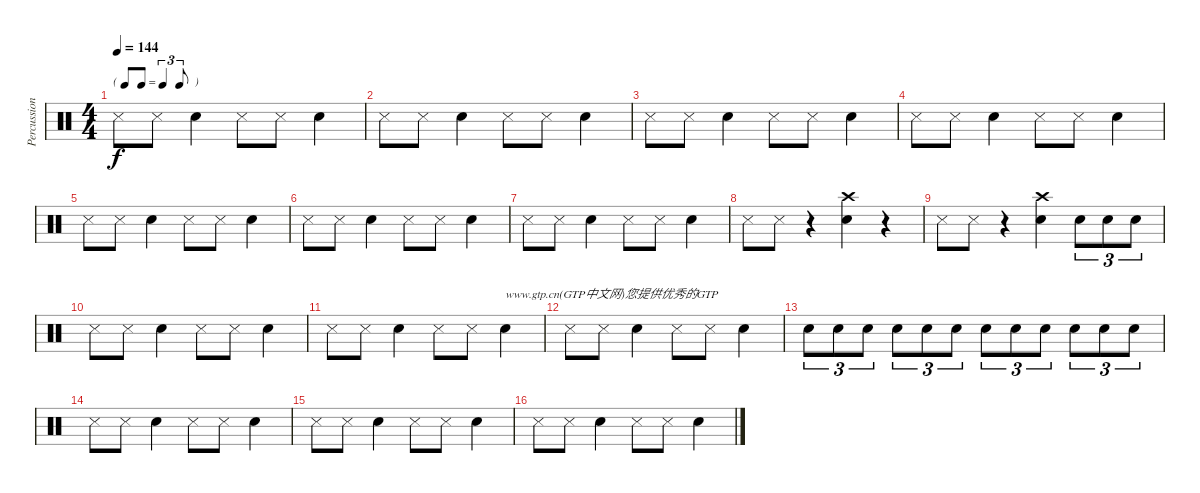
\track ("Percussions" "Percussion") {instrument percussion}
\staff {score}
\articulation defaults
\ts (4 4)
\tf triplet8th
\tempo 144
\clef neutral
\ks c "Snare (side stick) 3".8{dy f} "Snare (side stick) 3".8 "Snare (hit) 2".4 "Snare (side stick) 3".8 "Snare (side stick) 3".8 "Snare (hit) 2".4
|
"Snare (side stick) 3".8 "Snare (side stick) 3".8 "Snare (hit) 2".4 "Snare (side stick) 3".8 "Snare (side stick) 3".8 "Snare (hit) 2".4 |
"Snare (side stick) 3".8 "Snare (side stick) 3".8 "Snare (hit) 2".4 "Snare (side stick) 3".8 "Snare (side stick) 3".8 "Snare (hit) 2".4 |
"Snare (side stick) 3".8 "Snare (side stick) 3".8 "Snare (hit) 2".4 "Snare (side stick) 3".8 "Snare (side stick) 3".8 "Snare (hit) 2".4 |
"Snare (side stick) 3".8 "Snare (side stick) 3".8 "Snare (hit) 2".4 "Snare (side stick) 3".8 "Snare (side stick) 3".8 "Snare (hit) 2".4 |
"Snare (side stick) 3".8 "Snare (side stick) 3".8 "Snare (hit) 2".4 "Snare (side stick) 3".8 "Snare (side stick) 3".8 "Snare (hit) 2".4 |
"Snare (side stick) 3".8 "Snare (side stick) 3".8 "Snare (hit) 2".4 "Snare (side stick) 3".8 "Snare (side stick) 3".8 "Snare (hit) 2".4 |
"Snare (side stick) 3".8 "Snare (side stick) 3".8 r.4 ("Snare (hit) 2" "Crash high (hit)").4 r.4 |
"Snare (side stick) 3".8 "Snare (side stick) 3".8 r.4 ("Snare (hit) 2" "Crash high (hit)").4 "Snare (hit) 2".8{tu (3 2)} "Snare (hit) 2".8{tu (3 2)} "Snare (hit) 2".8{tu (3 2)} |
"Snare (side stick) 3".8 "Snare (side stick) 3".8 "Snare (hit) 2".4 "Snare (side stick) 3".8 "Snare (side stick) 3".8 "Snare (hit) 2".4 |
"Snare (side stick) 3".8 "Snare (side stick) 3".8 "Snare (hit) 2".4 "Snare (side stick) 3".8 "Snare (side stick) 3".8 "Snare (hit) 2".4{txt "www.gtp.cn(GTP中文网)您提供优秀的GTP"} |
"Snare (side stick) 3".8 "Snare (side stick) 3".8 "Snare (hit) 2".4 "Snare (side stick) 3".8 "Snare (side stick) 3".8 "Snare (hit) 2".4 |
"Snare (hit) 2".8{tu (3 2)} "Snare (hit) 2".8{tu (3 2)} "Snare (hit) 2".8{tu (3 2)} "Snare (hit) 2".8{tu (3 2)} "Snare (hit) 2".8{tu (3 2)} "Snare (hit) 2".8{tu (3 2)} "Snare (hit) 2".8{tu (3 2)} "Snare (hit) 2".8{tu (3 2)} "Snare (hit) 2".8{tu (3 2)} "Snare (hit) 2".8{tu (3 2)} "Snare (hit) 2".8{tu (3 2)} "Snare (hit) 2".8{tu (3 2)} |
"Snare (side stick) 3".8 "Snare (side stick) 3".8 "Snare (hit) 2".4 "Snare (side stick) 3".8 "Snare (side stick) 3".8 "Snare (hit) 2".4 |
"Snare (side stick) 3".8 "Snare (side stick) 3".8 "Snare (hit) 2".4 "Snare (side stick) 3".8 "Snare (side stick) 3".8 "Snare (hit) 2".4 |
"Snare (side stick) 3".8 "Snare (side stick) 3".8 "Snare (hit) 2".4 "Snare (side stick) 3".8 "Snare (side stick) 3".8 "Snare (hit) 2".4
